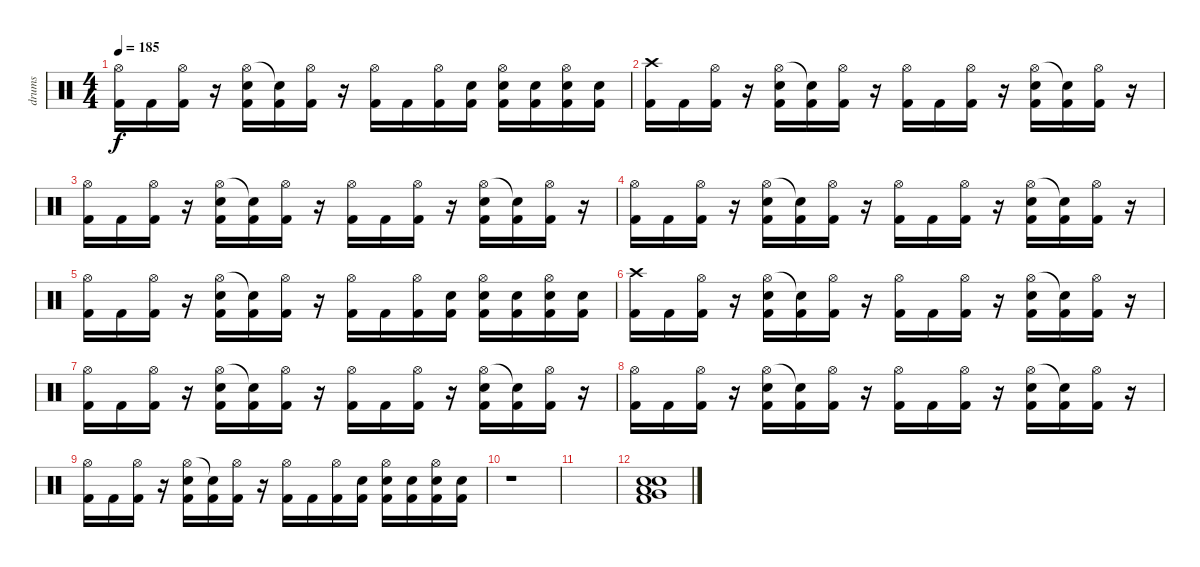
\track ("drums" "drums") {instrument percussion}
\staff {score}
\articulation defaults
\ts (4 4)
\tempo 185
\clef neutral
\ks c
("Hi-Hat (open)" "Kick (hit) 2").16{dy f} "Kick (hit) 2".16 ("Hi-Hat (open)" "Kick (hit) 2").16 r.16 ("Hi-Hat (open)" "Electric Snare (hit)" "Kick (hit) 2").16 ("Snare (hit)"{t} "Kick (hit) 2").16 ("Hi-Hat (open)" "Kick (hit) 2").16 r.16 ("Hi-Hat (open)" "Kick (hit) 2").16 "Kick (hit) 2".16 ("Hi-Hat (open)" "Kick (hit) 2").16 ("Electric Snare (hit)" "Kick (hit) 2").16 ("Hi-Hat (open)" "Electric Snare (hit)" "Kick (hit) 2").16 ("Electric Snare (hit)" "Kick (hit) 2").16 ("Hi-Hat (open)" "Electric Snare (hit)" "Kick (hit) 2").16 ("Electric Snare (hit)" "Kick (hit) 2").16 |
("Crash high (hit)" "Kick (hit) 2").16 "Kick (hit) 2".16 ("Hi-Hat (open)" "Kick (hit) 2").16 r.16 ("Hi-Hat (open)" "Electric Snare (hit)" "Kick (hit) 2").16 ("Snare (hit)"{t} "Kick (hit) 2").16 ("Hi-Hat (open)" "Kick (hit) 2").16 r.16 ("Hi-Hat (open)" "Kick (hit) 2").16 "Kick (hit) 2".16 ("Hi-Hat (open)" "Kick (hit) 2").16 r.16 ("Hi-Hat (open)" "Electric Snare (hit)" "Kick (hit) 2").16 ("Snare (hit)"{t} "Kick (hit) 2").16 ("Hi-Hat (open)" "Kick (hit) 2").16 r.16 |
("Hi-Hat (open)" "Kick (hit) 2").16 "Kick (hit) 2".16 ("Hi-Hat (open)" "Kick (hit) 2").16 r.16 ("Hi-Hat (open)" "Electric Snare (hit)" "Kick (hit) 2").16 ("Snare (hit)"{t} "Kick (hit) 2").16 ("Hi-Hat (open)" "Kick (hit) 2").16 r.16 ("Hi-Hat (open)" "Kick (hit) 2").16 "Kick (hit) 2".16 ("Hi-Hat (open)" "Kick (hit) 2").16 r.16 ("Hi-Hat (open)" "Electric Snare (hit)" "Kick (hit) 2").16 ("Snare (hit)"{t} "Kick (hit) 2").16 ("Hi-Hat (open)" "Kick (hit) 2").16 r.16 |
("Hi-Hat (open)" "Kick (hit) 2").16 "Kick (hit) 2".16 ("Hi-Hat (open)" "Kick (hit) 2").16 r.16 ("Hi-Hat (open)" "Electric Snare (hit)" "Kick (hit) 2").16 ("Snare (hit)"{t} "Kick (hit) 2").16 ("Hi-Hat (open)" "Kick (hit) 2").16 r.16 ("Hi-Hat (open)" "Kick (hit) 2").16 "Kick (hit) 2".16 ("Hi-Hat (open)" "Kick (hit) 2").16 r.16 ("Hi-Hat (open)" "Electric Snare (hit)" "Kick (hit) 2").16 ("Snare (hit)"{t} "Kick (hit) 2").16 ("Hi-Hat (open)" "Kick (hit) 2").16 r.16 |
("Hi-Hat (open)" "Kick (hit) 2").16 "Kick (hit) 2".16 ("Hi-Hat (open)" "Kick (hit) 2").16 r.16 ("Hi-Hat (open)" "Electric Snare (hit)" "Kick (hit) 2").16 ("Snare (hit)"{t} "Kick (hit) 2").16 ("Hi-Hat (open)" "Kick (hit) 2").16 r.16 ("Hi-Hat (open)" "Kick (hit) 2").16 "Kick (hit) 2".16 ("Hi-Hat (open)" "Kick (hit) 2").16 ("Electric Snare (hit)" "Kick (hit) 2").16 ("Hi-Hat (open)" "Electric Snare (hit)" "Kick (hit) 2").16 ("Electric Snare (hit)" "Kick (hit) 2").16 ("Hi-Hat (open)" "Electric Snare (hit)" "Kick (hit) 2").16 ("Electric Snare (hit)" "Kick (hit) 2").16 |
("Crash high (hit)" "Kick (hit) 2").16 "Kick (hit) 2".16 ("Hi-Hat (open)" "Kick (hit) 2").16 r.16 ("Hi-Hat (open)" "Electric Snare (hit)" "Kick (hit) 2").16 ("Snare (hit)"{t} "Kick (hit) 2").16 ("Hi-Hat (open)" "Kick (hit) 2").16 r.16 ("Hi-Hat (open)" "Kick (hit) 2").16 "Kick (hit) 2".16 ("Hi-Hat (open)" "Kick (hit) 2").16 r.16 ("Hi-Hat (open)" "Electric Snare (hit)" "Kick (hit) 2").16 ("Snare (hit)"{t} "Kick (hit) 2").16 ("Hi-Hat (open)" "Kick (hit) 2").16 r.16 |
("Hi-Hat (open)" "Kick (hit) 2").16 "Kick (hit) 2".16 ("Hi-Hat (open)" "Kick (hit) 2").16 r.16 ("Hi-Hat (open)" "Electric Snare (hit)" "Kick (hit) 2").16 ("Snare (hit)"{t} "Kick (hit) 2").16 ("Hi-Hat (open)" "Kick (hit) 2").16 r.16 ("Hi-Hat (open)" "Kick (hit) 2").16 "Kick (hit) 2".16 ("Hi-Hat (open)" "Kick (hit) 2").16 r.16 ("Hi-Hat (open)" "Electric Snare (hit)" "Kick (hit) 2").16 ("Snare (hit)"{t} "Kick (hit) 2").16 ("Hi-Hat (open)" "Kick (hit) 2").16 r.16 |
("Hi-Hat (open)" "Kick (hit) 2").16 "Kick (hit) 2".16 ("Hi-Hat (open)" "Kick (hit) 2").16 r.16 ("Hi-Hat (open)" "Electric Snare (hit)" "Kick (hit) 2").16 ("Snare (hit)"{t} "Kick (hit) 2").16 ("Hi-Hat (open)" "Kick (hit) 2").16 r.16 ("Hi-Hat (open)" "Kick (hit) 2").16 "Kick (hit) 2".16 ("Hi-Hat (open)" "Kick (hit) 2").16 r.16 ("Hi-Hat (open)" "Electric Snare (hit)" "Kick (hit) 2").16 ("Snare (hit)"{t} "Kick (hit) 2").16 ("Hi-Hat (open)" "Kick (hit) 2").16 r.16 |
("Hi-Hat (open)" "Kick (hit) 2").16 "Kick (hit) 2".16 ("Hi-Hat (open)" "Kick (hit) 2").16 r.16 ("Hi-Hat (open)" "Electric Snare (hit)" "Kick (hit) 2").16 ("Snare (hit)"{t} "Kick (hit) 2").16 ("Hi-Hat (open)" "Kick (hit) 2").16 r.16 ("Hi-Hat (open)" "Kick (hit) 2").16 "Kick (hit) 2".16 ("Hi-Hat (open)" "Kick (hit) 2").16 ("Electric Snare (hit)" "Kick (hit) 2").16 ("Hi-Hat (open)" "Electric Snare (hit)" "Kick (hit) 2").16 ("Electric Snare (hit)" "Kick (hit) 2").16 ("Hi-Hat (open)" "Electric Snare (hit)" "Kick (hit) 2").16 ("Electric Snare (hit)" "Kick (hit) 2").16 |
r.1 |
|
("Very Low Tom (hit)" "Low Floor Tom (hit)" "Electric Snare (hit)" "Kick (hit) 2" "Electric Snare (hit)").1
